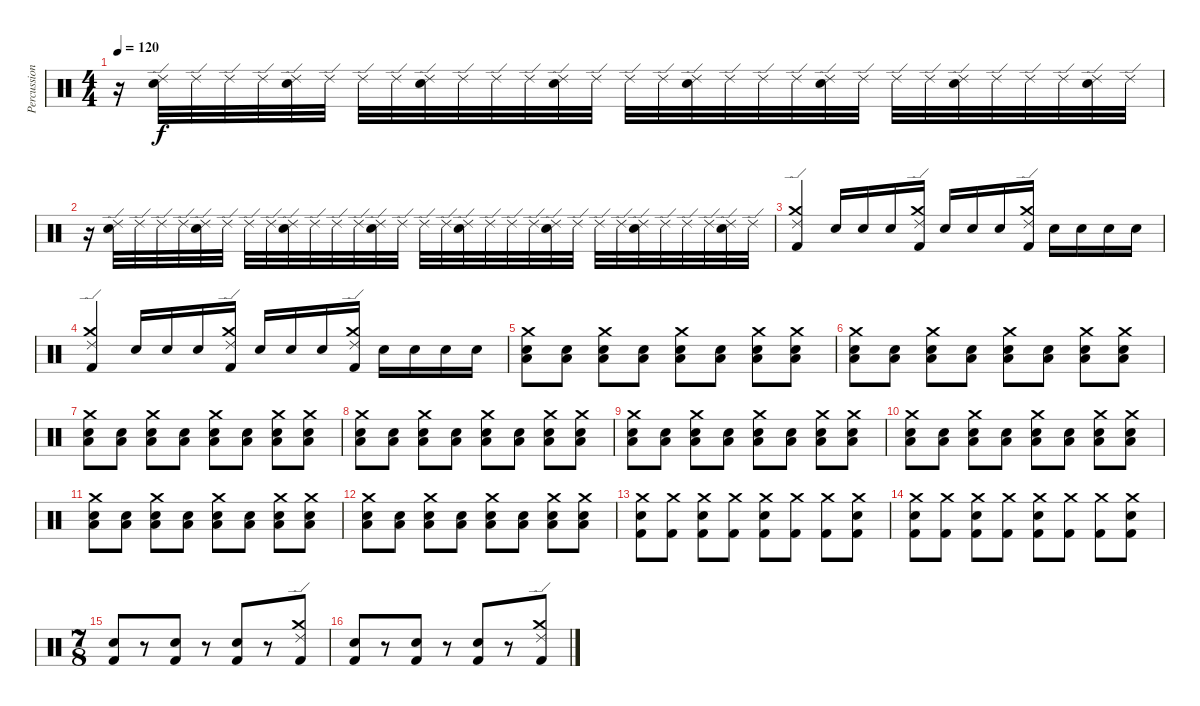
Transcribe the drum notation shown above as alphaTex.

\track ("Percussion" "Percussion") {instrument percussion}
\staff {score}
\articulation defaults
\ts (4 4)
\tempo 120
\clef neutral
\ks c
r.16{dy f} ("Ride (edge) 2" "Snare (hit) 2").32 "Ride (edge) 2".32 "Ride (edge) 2".32 "Ride (edge) 2".32 ("Ride (edge) 2" "Snare (hit) 2").32 "Ride (edge) 2".32 "Ride (edge) 2".32 "Ride (edge) 2".32 ("Ride (edge) 2" "Snare (hit) 2").32 "Ride (edge) 2".32 "Ride (edge) 2".32 "Ride (edge) 2".32 ("Ride (edge) 2" "Snare (hit) 2").32 "Ride (edge) 2".32 "Ride (edge) 2".32 "Ride (edge) 2".32 ("Ride (edge) 2" "Snare (hit) 2").32 "Ride (edge) 2".32 "Ride (edge) 2".32 "Ride (edge) 2".32 ("Ride (edge) 2" "Snare (hit) 2").32 "Ride (edge) 2".32 "Ride (edge) 2".32 "Ride (edge) 2".32 ("Ride (edge) 2" "Snare (hit) 2").32 "Ride (edge) 2".32 "Ride (edge) 2".32 "Ride (edge) 2".32 ("Ride (edge) 2" "Snare (hit) 2").32 "Ride (edge) 2".32 |
r.16 ("Ride (edge) 2" "Snare (hit) 2").32 "Ride (edge) 2".32 "Ride (edge) 2".32 "Ride (edge) 2".32 ("Ride (edge) 2" "Snare (hit) 2").32 "Ride (edge) 2".32 "Ride (edge) 2".32 "Ride (edge) 2".32 ("Ride (edge) 2" "Snare (hit) 2").32 "Ride (edge) 2".32 "Ride (edge) 2".32 "Ride (edge) 2".32 ("Ride (edge) 2" "Snare (hit) 2").32 "Ride (edge) 2".32 "Ride (edge) 2".32 "Ride (edge) 2".32 ("Ride (edge) 2" "Snare (hit) 2").32 "Ride (edge) 2".32 "Ride (edge) 2".32 "Ride (edge) 2".32 ("Ride (edge) 2" "Snare (hit) 2").32 "Ride (edge) 2".32 "Ride (edge) 2".32 "Ride (edge) 2".32 ("Ride (edge) 2" "Snare (hit) 2").32 "Ride (edge) 2".32 "Ride (edge) 2".32 "Ride (edge) 2".32 ("Ride (edge) 2" "Snare (hit) 2").32 "Ride (edge) 2".32 |
("Crash medium (hit)" "Ride (edge) 2" "Kick (hit) 2").4 "Snare (hit) 2".16 "Snare (hit) 2".16 "Snare (hit) 2".16 ("Crash medium (hit)" "Ride (edge) 2" "Kick (hit) 2").16 "Snare (hit) 2".16 "Snare (hit) 2".16 "Snare (hit) 2".16 ("Ride (edge) 2" "Crash medium (hit)" "Kick (hit) 2").16 "Snare (hit) 2".16 "Snare (hit) 2".16 "Snare (hit) 2".16 "Snare (hit) 2".16 |
("Crash medium (hit)" "Ride (edge) 2" "Kick (hit) 2").4 "Snare (hit) 2".16 "Snare (hit) 2".16 "Snare (hit) 2".16 ("Crash medium (hit)" "Ride (edge) 2" "Kick (hit) 2").16 "Snare (hit) 2".16 "Snare (hit) 2".16 "Snare (hit) 2".16 ("Ride (edge) 2" "Crash medium (hit)" "Kick (hit) 2").16 "Snare (hit) 2".16 "Snare (hit) 2".16 "Snare (hit) 2".16 "Snare (hit) 2".16 |
("Crash medium (hit)" "Low Tom (hit)" "Snare (hit) 2").8 ("Low Tom (hit)" "Snare (hit) 2").8 ("Crash medium (hit)" "Low Tom (hit)" "Snare (hit) 2").8 ("Low Tom (hit)" "Snare (hit) 2").8 ("Crash medium (hit)" "Low Tom (hit)" "Snare (hit) 2").8 ("Low Tom (hit)" "Snare (hit) 2").8 ("Crash medium (hit)" "Low Tom (hit)" "Snare (hit) 2").8 ("Crash medium (hit)" "Low Tom (hit)" "Snare (hit) 2").8 |
("Crash medium (hit)" "Low Tom (hit)" "Snare (hit) 2").8 ("Low Tom (hit)" "Snare (hit) 2").8 ("Crash medium (hit)" "Low Tom (hit)" "Snare (hit) 2").8 ("Low Tom (hit)" "Snare (hit) 2").8 ("Crash medium (hit)" "Low Tom (hit)" "Snare (hit) 2").8 ("Low Tom (hit)" "Snare (hit) 2").8 ("Crash medium (hit)" "Low Tom (hit)" "Snare (hit) 2").8 ("Crash medium (hit)" "Low Tom (hit)" "Snare (hit) 2").8 |
("Crash medium (hit)" "Low Tom (hit)" "Snare (hit) 2").8 ("Low Tom (hit)" "Snare (hit) 2").8 ("Crash medium (hit)" "Low Tom (hit)" "Snare (hit) 2").8 ("Low Tom (hit)" "Snare (hit) 2").8 ("Crash medium (hit)" "Low Tom (hit)" "Snare (hit) 2").8 ("Low Tom (hit)" "Snare (hit) 2").8 ("Crash medium (hit)" "Low Tom (hit)" "Snare (hit) 2").8 ("Crash medium (hit)" "Low Tom (hit)" "Snare (hit) 2").8 |
("Crash medium (hit)" "Low Tom (hit)" "Snare (hit) 2").8 ("Low Tom (hit)" "Snare (hit) 2").8 ("Crash medium (hit)" "Low Tom (hit)" "Snare (hit) 2").8 ("Low Tom (hit)" "Snare (hit) 2").8 ("Crash medium (hit)" "Low Tom (hit)" "Snare (hit) 2").8 ("Low Tom (hit)" "Snare (hit) 2").8 ("Crash medium (hit)" "Low Tom (hit)" "Snare (hit) 2").8 ("Crash medium (hit)" "Low Tom (hit)" "Snare (hit) 2").8 |
("Crash medium (hit)" "Low Tom (hit)" "Snare (hit) 2").8 ("Low Tom (hit)" "Snare (hit) 2").8 ("Crash medium (hit)" "Low Tom (hit)" "Snare (hit) 2").8 ("Low Tom (hit)" "Snare (hit) 2").8 ("Crash medium (hit)" "Low Tom (hit)" "Snare (hit) 2").8 ("Low Tom (hit)" "Snare (hit) 2").8 ("Crash medium (hit)" "Low Tom (hit)" "Snare (hit) 2").8 ("Crash medium (hit)" "Low Tom (hit)" "Snare (hit) 2").8 |
("Crash medium (hit)" "Low Tom (hit)" "Snare (hit) 2").8 ("Low Tom (hit)" "Snare (hit) 2").8 ("Crash medium (hit)" "Low Tom (hit)" "Snare (hit) 2").8 ("Low Tom (hit)" "Snare (hit) 2").8 ("Crash medium (hit)" "Low Tom (hit)" "Snare (hit) 2").8 ("Low Tom (hit)" "Snare (hit) 2").8 ("Crash medium (hit)" "Low Tom (hit)" "Snare (hit) 2").8 ("Crash medium (hit)" "Low Tom (hit)" "Snare (hit) 2").8 |
("Crash medium (hit)" "Low Tom (hit)" "Snare (hit) 2").8 ("Low Tom (hit)" "Snare (hit) 2").8 ("Crash medium (hit)" "Low Tom (hit)" "Snare (hit) 2").8 ("Low Tom (hit)" "Snare (hit) 2").8 ("Crash medium (hit)" "Low Tom (hit)" "Snare (hit) 2").8 ("Low Tom (hit)" "Snare (hit) 2").8 ("Crash medium (hit)" "Low Tom (hit)" "Snare (hit) 2").8 ("Crash medium (hit)" "Low Tom (hit)" "Snare (hit) 2").8 |
("Crash medium (hit)" "Low Tom (hit)" "Snare (hit) 2").8 ("Low Tom (hit)" "Snare (hit) 2").8 ("Crash medium (hit)" "Low Tom (hit)" "Snare (hit) 2").8 ("Low Tom (hit)" "Snare (hit) 2").8 ("Crash medium (hit)" "Low Tom (hit)" "Snare (hit) 2").8 ("Low Tom (hit)" "Snare (hit) 2").8 ("Crash medium (hit)" "Low Tom (hit)" "Snare (hit) 2").8 ("Crash medium (hit)" "Low Tom (hit)" "Snare (hit) 2").8 |
("Crash medium (hit)" "Snare (hit) 2" "Kick (hit) 2").8 ("Crash medium (hit)" "Kick (hit) 2").8 ("Crash medium (hit)" "Snare (hit) 2" "Kick (hit) 2").8 ("Crash medium (hit)" "Kick (hit) 2").8 ("Crash medium (hit)" "Snare (hit) 2" "Kick (hit) 2").8 ("Crash medium (hit)" "Kick (hit) 2").8 ("Crash medium (hit)" "Kick (hit) 2").8 ("Crash medium (hit)" "Snare (hit) 2" "Kick (hit) 2").8 |
("Crash medium (hit)" "Snare (hit) 2" "Kick (hit) 2").8 ("Crash medium (hit)" "Kick (hit) 2").8 ("Crash medium (hit)" "Snare (hit) 2" "Kick (hit) 2").8 ("Crash medium (hit)" "Kick (hit) 2").8 ("Crash medium (hit)" "Snare (hit) 2" "Kick (hit) 2").8 ("Crash medium (hit)" "Kick (hit) 2").8 ("Crash medium (hit)" "Kick (hit) 2").8 ("Crash medium (hit)" "Snare (hit) 2" "Kick (hit) 2").8 |
\ts (7 8)
("Snare (hit) 2" "Kick (hit) 2").8 r.8 ("Snare (hit) 2" "Kick (hit) 2").8 r.8 ("Snare (hit) 2" "Kick (hit) 2").8 r.8 ("Ride (edge) 2" "Crash medium (hit)" "Kick (hit) 2").8 |
("Snare (hit) 2" "Kick (hit) 2").8 r.8 ("Snare (hit) 2" "Kick (hit) 2").8 r.8 ("Snare (hit) 2" "Kick (hit) 2").8 r.8 ("Ride (edge) 2" "Crash medium (hit)" "Kick (hit) 2").8
